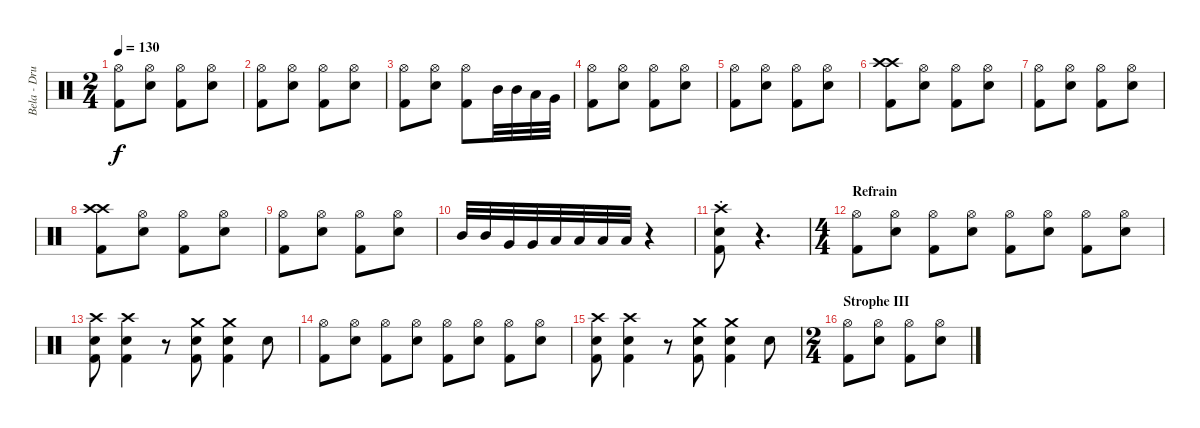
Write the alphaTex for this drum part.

\track ("Bela - Drums" "Bela - Dru") {instrument percussion}
\staff {score}
\articulation defaults
\ts (2 4)
\tempo 130
\clef neutral
\ks c
("Hi-Hat (open)" "Kick (hit) 2").8{dy f} ("Hi-Hat (open)" "Snare (hit) 2").8 ("Hi-Hat (open)" "Kick (hit) 2").8 ("Hi-Hat (open)" "Snare (hit) 2").8 |
("Hi-Hat (open)" "Kick (hit) 2").8 ("Hi-Hat (open)" "Snare (hit) 2").8 ("Hi-Hat (open)" "Kick (hit) 2").8 ("Hi-Hat (open)" "Snare (hit) 2").8 |
("Hi-Hat (open)" "Kick (hit) 2").8 ("Hi-Hat (open)" "Snare (hit) 2").8 ("Hi-Hat (open)" "Kick (hit) 2").8 "Mid Tom (hit)".32 "Mid Tom (hit)".32 "Low Floor Tom (hit)".32 "Very Low Tom (hit)".32 |
("Hi-Hat (open)" "Kick (hit) 2").8 ("Hi-Hat (open)" "Snare (hit) 2").8 ("Hi-Hat (open)" "Kick (hit) 2").8 ("Hi-Hat (open)" "Snare (hit) 2").8 |
("Hi-Hat (open)" "Kick (hit) 2").8 ("Hi-Hat (open)" "Snare (hit) 2").8 ("Hi-Hat (open)" "Kick (hit) 2").8 ("Hi-Hat (open)" "Snare (hit) 2").8 |
("Crash high (hit)" "Crash high (hit)" "Kick (hit) 2").8 ("Hi-Hat (open)" "Snare (hit) 2").8 ("Hi-Hat (open)" "Kick (hit) 2").8 ("Hi-Hat (open)" "Snare (hit) 2").8 |
("Hi-Hat (open)" "Kick (hit) 2").8 ("Hi-Hat (open)" "Snare (hit) 2").8 ("Hi-Hat (open)" "Kick (hit) 2").8 ("Hi-Hat (open)" "Snare (hit) 2").8 |
("Crash high (hit)" "Crash high (hit)" "Kick (hit) 2").8 ("Hi-Hat (open)" "Snare (hit) 2").8 ("Hi-Hat (open)" "Kick (hit) 2").8 ("Hi-Hat (open)" "Snare (hit) 2").8 |
("Hi-Hat (open)" "Kick (hit) 2").8 ("Hi-Hat (open)" "Snare (hit) 2").8 ("Hi-Hat (open)" "Kick (hit) 2").8 ("Hi-Hat (open)" "Snare (hit) 2").8 |
"Mid Tom (hit)".32 "Mid Tom (hit)".32 "Very Low Tom (hit)".32 "Very Low Tom (hit)".32 "Low Tom (hit)".32 "Low Tom (hit)".32 "Low Floor Tom (hit)".32 "Low Floor Tom (hit)".32 r.4 |
("Snare (hit) 2" "Crash high (hit)"{st} "Kick (hit) 2").8 r.4{d} |
\ts (4 4)
\section ("" "Refrain")
("Hi-Hat (open)" "Kick (hit) 2").8 ("Hi-Hat (open)" "Snare (hit) 2").8 ("Hi-Hat (open)" "Kick (hit) 2").8 ("Hi-Hat (open)" "Snare (hit) 2").8 ("Hi-Hat (open)" "Kick (hit) 2").8 ("Hi-Hat (open)" "Snare (hit) 2").8 ("Hi-Hat (open)" "Kick (hit) 2").8 ("Hi-Hat (open)" "Snare (hit) 2").8 |
("Crash high (hit)" "Snare (hit) 2" "Kick (hit) 2").8 ("Crash high (hit)" "Snare (hit) 2" "Kick (hit) 2").4 r.8 ("Crash medium (hit)" "Snare (hit) 2" "Kick (hit) 2").8 ("Crash medium (hit)" "Snare (hit) 2" "Kick (hit) 2").4 "Snare (hit) 2".8 |
("Hi-Hat (open)" "Kick (hit) 2").8 ("Hi-Hat (open)" "Snare (hit) 2").8 ("Hi-Hat (open)" "Kick (hit) 2").8 ("Hi-Hat (open)" "Snare (hit) 2").8 ("Hi-Hat (open)" "Kick (hit) 2").8 ("Hi-Hat (open)" "Snare (hit) 2").8 ("Hi-Hat (open)" "Kick (hit) 2").8 ("Hi-Hat (open)" "Snare (hit) 2").8 |
("Crash high (hit)" "Snare (hit) 2" "Kick (hit) 2").8 ("Crash high (hit)" "Snare (hit) 2" "Kick (hit) 2").4 r.8 ("Crash medium (hit)" "Snare (hit) 2" "Kick (hit) 2").8 ("Crash medium (hit)" "Snare (hit) 2" "Kick (hit) 2").4 "Snare (hit) 2".8 |
\ts (2 4)
\section ("" "Strophe III")
("Hi-Hat (open)" "Kick (hit) 2").8 ("Hi-Hat (open)" "Snare (hit) 2").8 ("Hi-Hat (open)" "Kick (hit) 2").8 ("Hi-Hat (open)" "Snare (hit) 2").8
